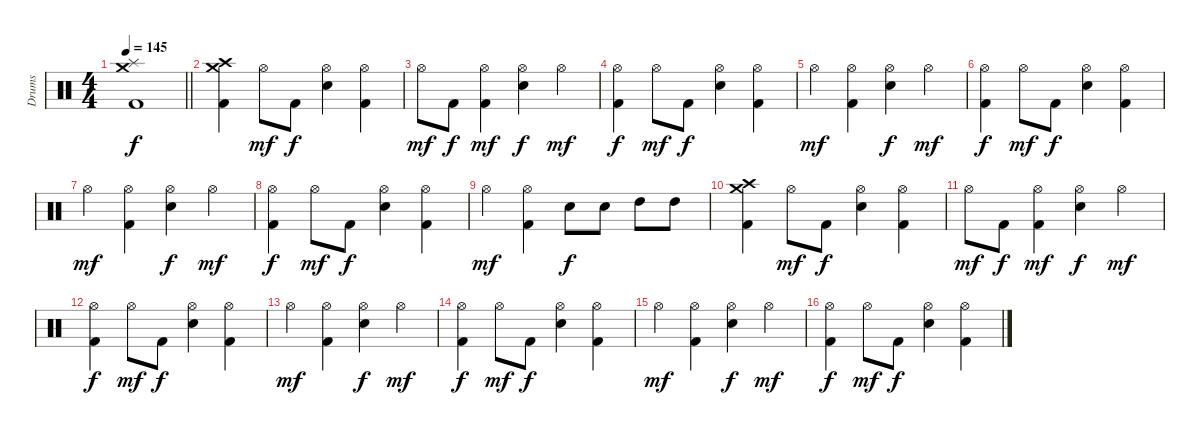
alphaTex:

\track ("Drums" "Drums") {instrument percussion}
\staff {score}
\articulation defaults
\ts (4 4)
\tempo 145
\clef neutral
\barLineRight lightlight
\ks c
("Crash medium (hit)" "Splash (hit)" "Kick (hit) 2").1{dy f} |
("Crash high (hit)" "Crash medium (hit)" "Kick (hit) 2").4 "Hi-Hat (open)".8{dy mf} "Kick (hit) 2".8{dy f} ("Hi-Hat (open)" "Electric Snare (hit)").4 ("Hi-Hat (open)" "Kick (hit) 2").4 |
"Hi-Hat (open)".8{dy mf} "Kick (hit) 2".8{dy f} ("Hi-Hat (open)" "Kick (hit) 2").4{dy mf} ("Hi-Hat (open)" "Electric Snare (hit)").4{dy f} "Hi-Hat (open)".4{dy mf} |
("Hi-Hat (open)" "Kick (hit) 2").4{dy f} "Hi-Hat (open)".8{dy mf} "Kick (hit) 2".8{dy f} ("Hi-Hat (open)" "Electric Snare (hit)").4 ("Hi-Hat (open)" "Kick (hit) 2").4 |
"Hi-Hat (open)".4{dy mf} ("Hi-Hat (open)" "Kick (hit) 2").4 ("Hi-Hat (open)" "Electric Snare (hit)").4{dy f} "Hi-Hat (open)".4{dy mf} |
("Hi-Hat (open)" "Kick (hit) 2").4{dy f} "Hi-Hat (open)".8{dy mf} "Kick (hit) 2".8{dy f} ("Hi-Hat (open)" "Electric Snare (hit)").4 ("Hi-Hat (open)" "Kick (hit) 2").4 |
"Hi-Hat (open)".4{dy mf} ("Hi-Hat (open)" "Kick (hit) 2").4 ("Hi-Hat (open)" "Electric Snare (hit)").4{dy f} "Hi-Hat (open)".4{dy mf} |
("Hi-Hat (open)" "Kick (hit) 2").4{dy f} "Hi-Hat (open)".8{dy mf} "Kick (hit) 2".8{dy f} ("Hi-Hat (open)" "Electric Snare (hit)").4 ("Hi-Hat (open)" "Kick (hit) 2").4 |
"Hi-Hat (open)".4{dy mf} ("Hi-Hat (open)" "Kick (hit) 2").4 "Electric Snare (hit)".8{dy f} "Electric Snare (hit)".8 "High Tom (hit)".8 "High Tom (hit)".8 |
("Crash high (hit)" "Crash medium (hit)" "Kick (hit) 2").4 "Hi-Hat (open)".8{dy mf} "Kick (hit) 2".8{dy f} ("Hi-Hat (open)" "Electric Snare (hit)").4 ("Hi-Hat (open)" "Kick (hit) 2").4 |
"Hi-Hat (open)".8{dy mf} "Kick (hit) 2".8{dy f} ("Hi-Hat (open)" "Kick (hit) 2").4{dy mf} ("Hi-Hat (open)" "Electric Snare (hit)").4{dy f} "Hi-Hat (open)".4{dy mf} |
("Hi-Hat (open)" "Kick (hit) 2").4{dy f} "Hi-Hat (open)".8{dy mf} "Kick (hit) 2".8{dy f} ("Hi-Hat (open)" "Electric Snare (hit)").4 ("Hi-Hat (open)" "Kick (hit) 2").4 |
"Hi-Hat (open)".4{dy mf} ("Hi-Hat (open)" "Kick (hit) 2").4 ("Hi-Hat (open)" "Electric Snare (hit)").4{dy f} "Hi-Hat (open)".4{dy mf} |
("Hi-Hat (open)" "Kick (hit) 2").4{dy f} "Hi-Hat (open)".8{dy mf} "Kick (hit) 2".8{dy f} ("Hi-Hat (open)" "Electric Snare (hit)").4 ("Hi-Hat (open)" "Kick (hit) 2").4 |
"Hi-Hat (open)".4{dy mf} ("Hi-Hat (open)" "Kick (hit) 2").4 ("Hi-Hat (open)" "Electric Snare (hit)").4{dy f} "Hi-Hat (open)".4{dy mf} |
("Hi-Hat (open)" "Kick (hit) 2").4{dy f} "Hi-Hat (open)".8{dy mf} "Kick (hit) 2".8{dy f} ("Hi-Hat (open)" "Electric Snare (hit)").4 ("Hi-Hat (open)" "Kick (hit) 2").4
